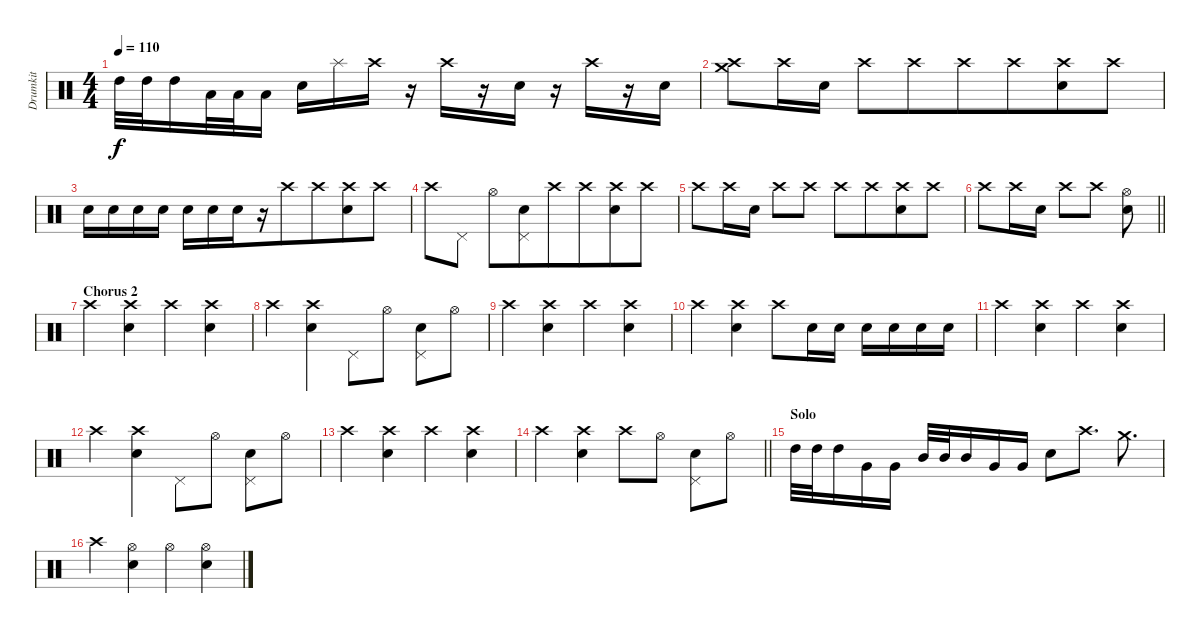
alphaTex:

\track ("Drumkit" "Drumkit") {instrument percussion}
\staff {score}
\articulation defaults
\ts (4 4)
\tempo 110
\clef neutral
\ks c "High Tom (hit)".32{dy f} "High Tom (hit)".32 "High Tom (hit)".16 "Low Floor Tom (hit)".32{beam merge} "Low Floor Tom (hit)".32 "Low Floor Tom (hit)".16 "Electric Snare (hit)".16 "Splash (hit)".16 "Crash high (hit)".16
r.16 "Crash high (hit)".16{beam merge} r.16 "Electric Snare (hit)".16 r.16 "Crash high (hit)".16{beam merge} r.16 "Electric Snare (hit)".16 |
("Crash medium (hit)" "Crash high (hit)").8 "Crash high (hit)".16{beam merge} "Electric Snare (hit)".16 "Crash high (hit)".8 "Crash high (hit)".8{beam merge} "Crash high (hit)".8 "Crash high (hit)".8{beam merge} ("Crash high (hit)" "Electric Snare (hit)").8{beam merge} "Crash high (hit)".8 |
"Electric Snare (hit)".16{beam merge} "Electric Snare (hit)".16{beam merge} "Electric Snare (hit)".16 "Electric Snare (hit)".16 "Electric Snare (hit)".16 "Electric Snare (hit)".16{beam merge} "Electric Snare (hit)".16{beam merge} r.16{beam merge} "Crash high (hit)".8 "Crash high (hit)".8{beam merge} ("Crash high (hit)" "Electric Snare (hit)").8 "Crash high (hit)".8 |
"Crash high (hit)".8 "Pedal Hi-Hat (hit)".8 "Hi-Hat (open)".8 ("Pedal Hi-Hat (hit)" "Electric Snare (hit)").8{beam merge} "Crash high (hit)".8 "Crash high (hit)".8{beam merge} ("Crash high (hit)" "Electric Snare (hit)").8 "Crash high (hit)".8 |
"Crash high (hit)".8 "Crash high (hit)".16 "Electric Snare (hit)".16 "Crash high (hit)".8 "Crash high (hit)".8 "Crash high (hit)".8 "Crash high (hit)".8{beam merge} ("Crash high (hit)" "Electric Snare (hit)").8 "Crash high (hit)".8 |
\barLineRight lightlight "Crash high (hit)".8 "Crash high (hit)".16 "Electric Snare (hit)".16 "Crash high (hit)".8 "Crash high (hit)".8
("Hi-Hat (open)" "Electric Snare (hit)").8 |
\section ("" "Chorus 2")
"Crash high (hit)".4{beam merge} ("Crash high (hit)" "Electric Snare (hit)").4{beam merge} "Crash high (hit)".4 ("Crash high (hit)" "Electric Snare (hit)").4 |
"Crash high (hit)".4 ("Crash high (hit)" "Electric Snare (hit)").4{beam merge} "Pedal Hi-Hat (hit)".8 "Hi-Hat (open)".8 ("Pedal Hi-Hat (hit)" "Electric Snare (hit)").8 "Hi-Hat (open)".8 |
"Crash high (hit)".4{beam merge} ("Crash high (hit)" "Electric Snare (hit)").4{beam merge} "Crash high (hit)".4 ("Crash high (hit)" "Electric Snare (hit)").4 |
"Crash high (hit)".4{beam merge} ("Crash high (hit)" "Electric Snare (hit)").4{beam merge} "Crash high (hit)".8 "Electric Snare (hit)".16 "Electric Snare (hit)".16 "Electric Snare (hit)".16{beam merge} "Electric Snare (hit)".16 "Electric Snare (hit)".16 "Electric Snare (hit)".16 |
"Crash high (hit)".4{beam merge} ("Crash high (hit)" "Electric Snare (hit)").4{beam merge} "Crash high (hit)".4 ("Crash high (hit)" "Electric Snare (hit)").4 |
"Crash high (hit)".4 ("Crash high (hit)" "Electric Snare (hit)").4{beam merge} "Pedal Hi-Hat (hit)".8 "Hi-Hat (open)".8 ("Pedal Hi-Hat (hit)" "Electric Snare (hit)").8 "Hi-Hat (open)".8 |
"Crash high (hit)".4{beam merge} ("Crash high (hit)" "Electric Snare (hit)").4{beam merge} "Crash high (hit)".4 ("Crash high (hit)" "Electric Snare (hit)").4 |
\barLineRight lightlight "Crash high (hit)".4{beam merge}
("Crash high (hit)" "Electric Snare (hit)").4{beam merge} "Crash high (hit)".8 "Hi-Hat (open)".8 ("Pedal Hi-Hat (hit)" "Electric Snare (hit)").8 "Hi-Hat (open)".8 |
\section ("" "Solo")
"High Tom (hit)".32 "High Tom (hit)".32 "High Tom (hit)".16 "Very Low Tom (hit)".16 "Very Low Tom (hit)".16 "Mid Tom (hit)".32 "Mid Tom (hit)".32{beam merge} "Mid Tom (hit)".16 "Very Low Tom (hit)".16 "Very Low Tom (hit)".16 "Electric Snare (hit)".8 "Crash high (hit)".8{d} "Crash medium (hit)".8{d} |
"Crash high (hit)".4 ("Hi-Hat (open)" "Electric Snare (hit)").4{beam merge} "Hi-Hat (open)".4{beam merge} ("Hi-Hat (open)" "Electric Snare (hit)").4
